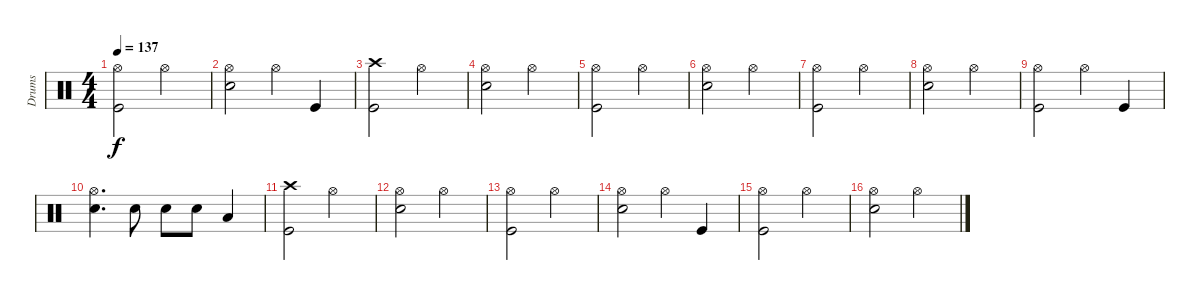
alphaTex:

\track ("Drums" "Drums") {instrument percussion}
\staff {score}
\articulation defaults
\ts (4 4)
\tempo 137
\clef neutral
\ks c
("Hi-Hat (open)" "Kick (hit)").2{dy f} "Hi-Hat (open)".2 |
("Hi-Hat (open)" "Snare (hit) 2").2 "Hi-Hat (open)".4 "Kick (hit)".4 |
("Crash high (hit)" "Kick (hit)").2 "Hi-Hat (open)".2 |
("Hi-Hat (open)" "Snare (hit) 2").2 "Hi-Hat (open)".2 |
("Hi-Hat (open)" "Kick (hit)").2 "Hi-Hat (open)".2 |
("Hi-Hat (open)" "Snare (hit) 2").2 "Hi-Hat (open)".2 |
("Hi-Hat (open)" "Kick (hit)").2 "Hi-Hat (open)".2 |
("Hi-Hat (open)" "Snare (hit) 2").2 "Hi-Hat (open)".2 |
("Hi-Hat (open)" "Kick (hit)").2 "Hi-Hat (open)".4 "Kick (hit)".4 |
("Hi-Hat (open)" "Snare (hit) 2").4{d} "Snare (hit) 2".8 "Snare (hit) 2".8 "Snare (hit) 2".8 "Low Tom (hit)".4 |
("Crash high (hit)" "Kick (hit)").2 "Hi-Hat (open)".2 |
("Hi-Hat (open)" "Snare (hit) 2").2 "Hi-Hat (open)".2 |
("Hi-Hat (open)" "Kick (hit)").2 "Hi-Hat (open)".2 |
("Hi-Hat (open)" "Snare (hit) 2").2 "Hi-Hat (open)".4 "Kick (hit)".4 |
("Hi-Hat (open)" "Kick (hit)").2 "Hi-Hat (open)".2 |
("Hi-Hat (open)" "Snare (hit) 2").2 "Hi-Hat (open)".2
